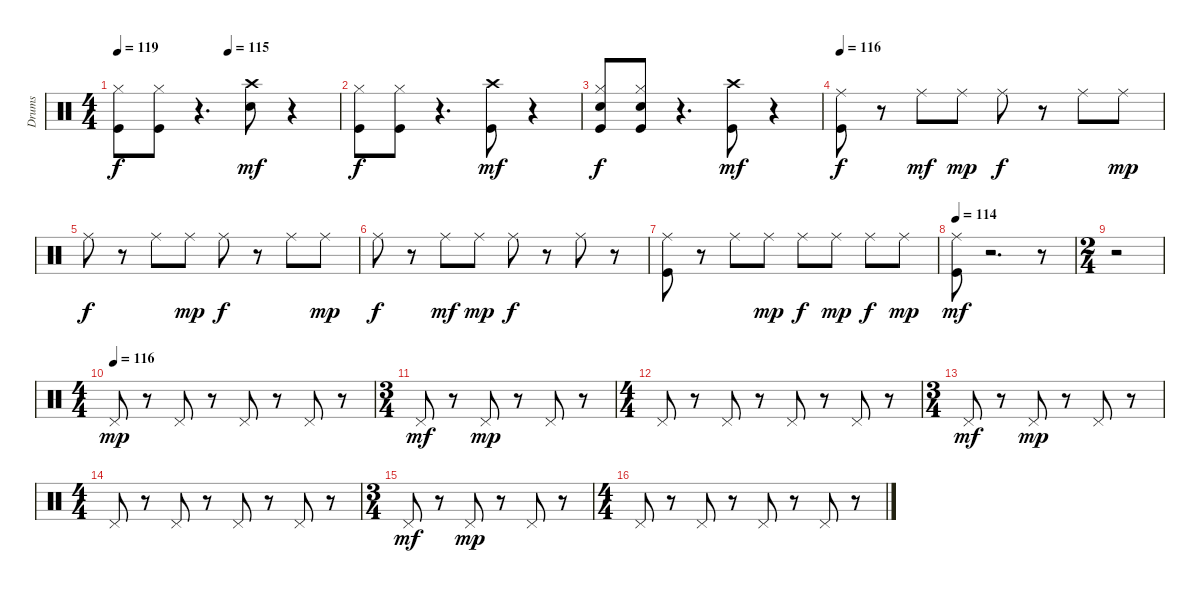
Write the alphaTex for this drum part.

\track ("Drums" "Drums") {instrument percussion}
\staff {score}
\articulation defaults
\ts (4 4)
\tempo 119
\tempo (115 0.5)
\clef neutral
\ks c
("Kick (hit)" "Hi-Hat (closed)").8{dy f} ("Kick (hit)" "Hi-Hat (closed)").8 r.4{d} ("Electric Snare (hit)" "Crash high (hit)").8{dy mf} r.4 |
("Kick (hit)" "Hi-Hat (closed)").8{dy f} ("Kick (hit)" "Hi-Hat (closed)").8 r.4{d} ("Kick (hit)" "Crash high (hit)").8{dy mf} r.4 |
("Kick (hit)" "Electric Snare (hit)" "Hi-Hat (closed)").8{dy f} ("Kick (hit)" "Electric Snare (hit)" "Hi-Hat (closed)").8 r.4{d} ("Kick (hit)" "Crash high (hit)").8{dy mf} r.4 |
\tempo 116
("Kick (hit)" "Ride (middle)").8{dy f} r.8 "Ride (middle)".8{dy mf} "Ride (middle)".8{dy mp} "Ride (middle)".8{dy f} r.8 "Ride (middle)".8 "Ride (middle)".8{dy mp} |
"Ride (middle)".8{dy f} r.8 "Ride (middle)".8 "Ride (middle)".8{dy mp} "Ride (middle)".8{dy f} r.8 "Ride (middle)".8 "Ride (middle)".8{dy mp} |
"Ride (middle)".8{dy f} r.8 "Ride (middle)".8{dy mf} "Ride (middle)".8{dy mp} "Ride (middle)".8{dy f} r.8 "Ride (middle)".8 r.8 |
("Kick (hit)" "Ride (middle)").8 r.8 "Ride (middle)".8 "Ride (middle)".8{dy mp} "Ride (middle)".8{dy f} "Ride (middle)".8{dy mp} "Ride (middle)".8{dy f} "Ride (middle)".8{dy mp} |
\tempo 114
("Kick (hit)" "Ride (middle)").8{dy mf} r.2{d} r.8 |
\ts (2 4)
r.2 |
\ts (4 4)
\tempo (116)
"Pedal Hi-Hat (hit)".8{dy mp} r.8 "Pedal Hi-Hat (hit)".8 r.8 "Pedal Hi-Hat (hit)".8 r.8 "Pedal Hi-Hat (hit)".8 r.8 |
\ts (3 4)
"Pedal Hi-Hat (hit)".8{dy mf} r.8 "Pedal Hi-Hat (hit)".8{dy mp} r.8 "Pedal Hi-Hat (hit)".8 r.8 |
\ts (4 4)
"Pedal Hi-Hat (hit)".8 r.8 "Pedal Hi-Hat (hit)".8 r.8 "Pedal Hi-Hat (hit)".8 r.8 "Pedal Hi-Hat (hit)".8 r.8 |
\ts (3 4)
"Pedal Hi-Hat (hit)".8{dy mf} r.8 "Pedal Hi-Hat (hit)".8{dy mp} r.8 "Pedal Hi-Hat (hit)".8 r.8 |
\ts (4 4)
"Pedal Hi-Hat (hit)".8 r.8 "Pedal Hi-Hat (hit)".8 r.8 "Pedal Hi-Hat (hit)".8 r.8 "Pedal Hi-Hat (hit)".8 r.8 |
\ts (3 4)
"Pedal Hi-Hat (hit)".8{dy mf} r.8 "Pedal Hi-Hat (hit)".8{dy mp} r.8 "Pedal Hi-Hat (hit)".8 r.8 |
\ts (4 4)
"Pedal Hi-Hat (hit)".8 r.8 "Pedal Hi-Hat (hit)".8 r.8 "Pedal Hi-Hat (hit)".8 r.8 "Pedal Hi-Hat (hit)".8 r.8
